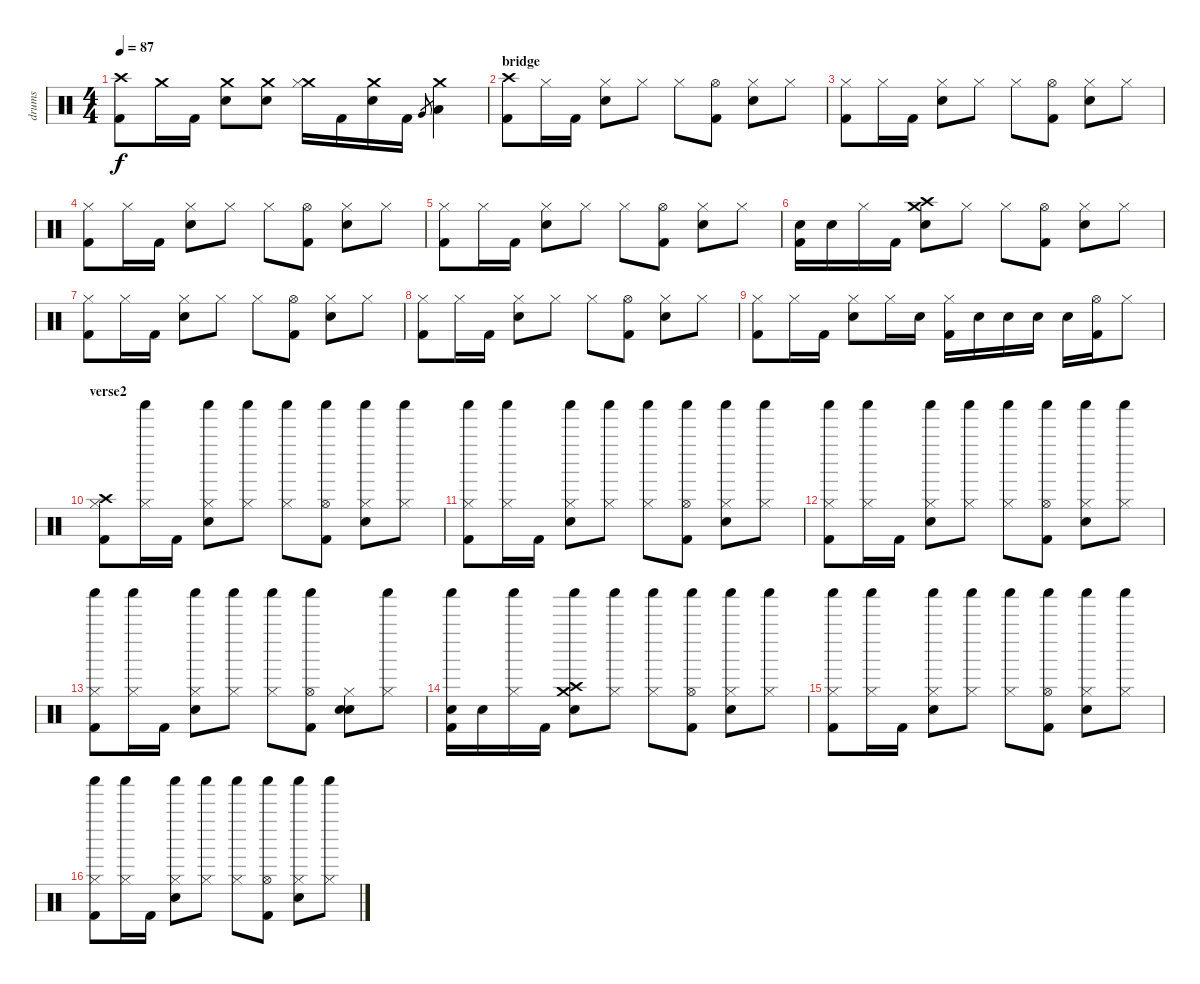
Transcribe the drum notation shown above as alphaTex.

\track ("drums" "drums") {instrument percussion}
\staff {score}
\articulation defaults
\ts (4 4)
\tempo 87
\clef neutral
\ks c
("Crash high (hit)" "Kick (hit) 2").8{dy f} "Crash medium (hit)".16 "Kick (hit) 2".16 ("Crash medium (hit)" "Electric Snare (hit)").8 ("Crash medium (hit)" "Electric Snare (hit)").8 ("Crash medium (hit)" "Hi-Hat (closed)").16 "Kick (hit) 2".16 ("Crash medium (hit)" "Electric Snare (hit)").16 "Kick (hit) 2".16 "Very Low Tom (hit)".8{gr} ("Crash medium (hit)" "Low Tom (hit)").4 |
\section ("" "bridge")
("Crash high (hit)" "Kick (hit) 2").8 "Hi-Hat (closed)".16 "Kick (hit) 2".16 ("Hi-Hat (closed)" "Electric Snare (hit)").8 "Hi-Hat (closed)".8 "Hi-Hat (closed)".8 ("Hi-Hat (open)" "Kick (hit) 2").8 ("Hi-Hat (closed)" "Electric Snare (hit)").8 "Hi-Hat (closed)".8 |
("Hi-Hat (closed)" "Kick (hit) 2").8 "Hi-Hat (closed)".16 "Kick (hit) 2".16 ("Hi-Hat (closed)" "Electric Snare (hit)").8 "Hi-Hat (closed)".8 "Hi-Hat (closed)".8 ("Hi-Hat (open)" "Kick (hit) 2").8 ("Hi-Hat (closed)" "Electric Snare (hit)").8 "Hi-Hat (closed)".8 |
("Hi-Hat (closed)" "Kick (hit) 2").8 "Hi-Hat (closed)".16 "Kick (hit) 2".16 ("Hi-Hat (closed)" "Electric Snare (hit)").8 "Hi-Hat (closed)".8 "Hi-Hat (closed)".8 ("Hi-Hat (open)" "Kick (hit) 2").8 ("Hi-Hat (closed)" "Electric Snare (hit)").8 "Hi-Hat (closed)".8 |
("Hi-Hat (closed)" "Kick (hit) 2").8 "Hi-Hat (closed)".16 "Kick (hit) 2".16 ("Hi-Hat (closed)" "Electric Snare (hit)").8 "Hi-Hat (closed)".8 "Hi-Hat (closed)".8 ("Hi-Hat (open)" "Kick (hit) 2").8 ("Hi-Hat (closed)" "Electric Snare (hit)").8 "Hi-Hat (closed)".8 |
("Electric Snare (hit)" "Kick (hit) 2").16 "Electric Snare (hit)".16 "Hi-Hat (closed)".16 "Kick (hit) 2".16 ("Crash high (hit)" "Crash medium (hit)" "Electric Snare (hit)").8 "Hi-Hat (closed)".8 "Hi-Hat (closed)".8 ("Hi-Hat (open)" "Kick (hit) 2").8 ("Hi-Hat (closed)" "Electric Snare (hit)").8 "Hi-Hat (closed)".8 |
("Hi-Hat (closed)" "Kick (hit) 2").8 "Hi-Hat (closed)".16 "Kick (hit) 2".16 ("Hi-Hat (closed)" "Electric Snare (hit)").8 "Hi-Hat (closed)".8 "Hi-Hat (closed)".8 ("Hi-Hat (open)" "Kick (hit) 2").8 ("Hi-Hat (closed)" "Electric Snare (hit)").8 "Hi-Hat (closed)".8 |
("Hi-Hat (closed)" "Kick (hit) 2").8 "Hi-Hat (closed)".16 "Kick (hit) 2".16 ("Hi-Hat (closed)" "Electric Snare (hit)").8 "Hi-Hat (closed)".8 "Hi-Hat (closed)".8 ("Hi-Hat (open)" "Kick (hit) 2").8 ("Hi-Hat (closed)" "Electric Snare (hit)").8 "Hi-Hat (closed)".8 |
("Hi-Hat (closed)" "Kick (hit) 2").8 "Hi-Hat (closed)".16 "Kick (hit) 2".16 ("Hi-Hat (closed)" "Electric Snare (hit)").8 "Hi-Hat (closed)".16 "Electric Snare (hit)".16 ("Hi-Hat (closed)" "Kick (hit) 2").16 "Electric Snare (hit)".16 "Electric Snare (hit)".16 "Electric Snare (hit)".16 "Electric Snare (hit)".16 ("Hi-Hat (open)" "Kick (hit) 2").16 "Hi-Hat (closed)".8 |
\section ("" "verse2")
("Crash high (hit)" "Hi-Hat (closed)" "Kick (hit) 2").8 ("Shaker (hit)" "Hi-Hat (closed)").16 "Kick (hit) 2".16 ("Shaker (hit)" "Hi-Hat (closed)" "Electric Snare (hit)").8 ("Shaker (hit)" "Hi-Hat (closed)").8 ("Shaker (hit)" "Hi-Hat (closed)").8 ("Shaker (hit)" "Hi-Hat (open)" "Kick (hit) 2").8 ("Shaker (hit)" "Hi-Hat (closed)" "Electric Snare (hit)").8 ("Shaker (hit)" "Hi-Hat (closed)").8 |
("Shaker (hit)" "Hi-Hat (closed)" "Kick (hit) 2").8 ("Shaker (hit)" "Hi-Hat (closed)").16 "Kick (hit) 2".16 ("Shaker (hit)" "Hi-Hat (closed)" "Electric Snare (hit)").8 ("Shaker (hit)" "Hi-Hat (closed)").8 ("Shaker (hit)" "Hi-Hat (closed)").8 ("Shaker (hit)" "Hi-Hat (open)" "Kick (hit) 2").8 ("Shaker (hit)" "Hi-Hat (closed)" "Electric Snare (hit)").8 ("Shaker (hit)" "Hi-Hat (closed)").8 |
("Shaker (hit)" "Hi-Hat (closed)" "Kick (hit) 2").8 ("Shaker (hit)" "Hi-Hat (closed)").16 "Kick (hit) 2".16 ("Shaker (hit)" "Hi-Hat (closed)" "Electric Snare (hit)").8 ("Shaker (hit)" "Hi-Hat (closed)").8 ("Shaker (hit)" "Hi-Hat (closed)").8 ("Shaker (hit)" "Hi-Hat (open)" "Kick (hit) 2").8 ("Shaker (hit)" "Hi-Hat (closed)" "Electric Snare (hit)").8 ("Shaker (hit)" "Hi-Hat (closed)").8 |
("Shaker (hit)" "Hi-Hat (closed)" "Kick (hit) 2").8 ("Shaker (hit)" "Hi-Hat (closed)").16 "Kick (hit) 2".16 ("Shaker (hit)" "Hi-Hat (closed)" "Electric Snare (hit)").8 ("Shaker (hit)" "Hi-Hat (closed)").8 ("Shaker (hit)" "Hi-Hat (closed)").8 ("Shaker (hit)" "Hi-Hat (open)" "Kick (hit) 2").8 ("Snare (hit)" "Hi-Hat (closed)" "Electric Snare (hit)").8 ("Shaker (hit)" "Hi-Hat (closed)").8 |
("Shaker (hit)" "Electric Snare (hit)" "Kick (hit) 2").16 "Electric Snare (hit)".16 ("Shaker (hit)" "Hi-Hat (closed)").16 "Kick (hit) 2".16 ("Shaker (hit)" "Crash high (hit)" "Crash medium (hit)" "Electric Snare (hit)").8 ("Shaker (hit)" "Hi-Hat (closed)").8 ("Shaker (hit)" "Hi-Hat (closed)").8 ("Shaker (hit)" "Hi-Hat (open)" "Kick (hit) 2").8 ("Shaker (hit)" "Hi-Hat (closed)" "Electric Snare (hit)").8 ("Shaker (hit)" "Hi-Hat (closed)").8 |
("Shaker (hit)" "Hi-Hat (closed)" "Kick (hit) 2").8 ("Shaker (hit)" "Hi-Hat (closed)").16 "Kick (hit) 2".16 ("Shaker (hit)" "Hi-Hat (closed)" "Electric Snare (hit)").8 ("Shaker (hit)" "Hi-Hat (closed)").8 ("Shaker (hit)" "Hi-Hat (closed)").8 ("Shaker (hit)" "Hi-Hat (open)" "Kick (hit) 2").8 ("Shaker (hit)" "Hi-Hat (closed)" "Electric Snare (hit)").8 ("Shaker (hit)" "Hi-Hat (closed)").8 |
("Shaker (hit)" "Hi-Hat (closed)" "Kick (hit) 2").8 ("Shaker (hit)" "Hi-Hat (closed)").16 "Kick (hit) 2".16 ("Shaker (hit)" "Hi-Hat (closed)" "Electric Snare (hit)").8 ("Shaker (hit)" "Hi-Hat (closed)").8 ("Shaker (hit)" "Hi-Hat (closed)").8 ("Shaker (hit)" "Hi-Hat (open)" "Kick (hit) 2").8 ("Shaker (hit)" "Hi-Hat (closed)" "Electric Snare (hit)").8 ("Shaker (hit)" "Hi-Hat (closed)").8
